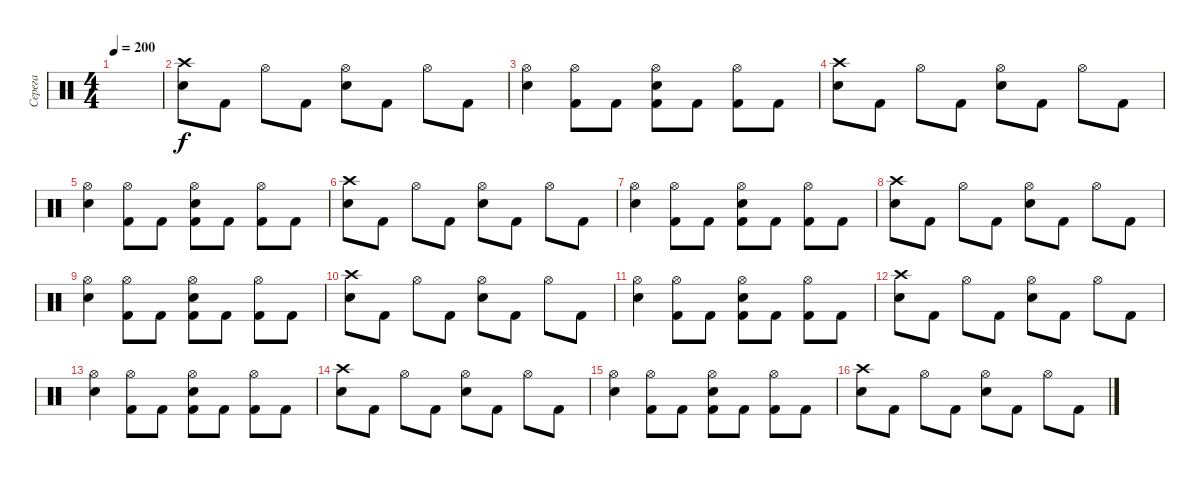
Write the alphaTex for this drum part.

\track ("Серега" "Серега") {instrument percussion}
\staff {score}
\articulation defaults
\ts (4 4)
\tempo 200
\clef neutral
\ks c
|
("Crash high (hit)" "Electric Snare (hit)").8 "Kick (hit) 2".8 "Hi-Hat (open)".8 "Kick (hit) 2".8 ("Hi-Hat (open)" "Electric Snare (hit)").8 "Kick (hit) 2".8 "Hi-Hat (open)".8 "Kick (hit) 2".8 |
("Hi-Hat (open)" "Electric Snare (hit)").4 ("Hi-Hat (open)" "Kick (hit) 2").8 "Kick (hit) 2".8 ("Hi-Hat (open)" "Electric Snare (hit)" "Kick (hit) 2").8 "Kick (hit) 2".8 ("Hi-Hat (open)" "Kick (hit) 2").8 "Kick (hit) 2".8 |
("Crash high (hit)" "Electric Snare (hit)").8 "Kick (hit) 2".8 "Hi-Hat (open)".8 "Kick (hit) 2".8 ("Hi-Hat (open)" "Electric Snare (hit)").8 "Kick (hit) 2".8 "Hi-Hat (open)".8 "Kick (hit) 2".8 |
("Hi-Hat (open)" "Electric Snare (hit)").4 ("Hi-Hat (open)" "Kick (hit) 2").8 "Kick (hit) 2".8 ("Hi-Hat (open)" "Electric Snare (hit)" "Kick (hit) 2").8 "Kick (hit) 2".8 ("Hi-Hat (open)" "Kick (hit) 2").8 "Kick (hit) 2".8 |
("Crash high (hit)" "Electric Snare (hit)").8 "Kick (hit) 2".8 "Hi-Hat (open)".8 "Kick (hit) 2".8 ("Hi-Hat (open)" "Electric Snare (hit)").8 "Kick (hit) 2".8 "Hi-Hat (open)".8 "Kick (hit) 2".8 |
("Hi-Hat (open)" "Electric Snare (hit)").4 ("Hi-Hat (open)" "Kick (hit) 2").8 "Kick (hit) 2".8 ("Hi-Hat (open)" "Electric Snare (hit)" "Kick (hit) 2").8 "Kick (hit) 2".8 ("Hi-Hat (open)" "Kick (hit) 2").8 "Kick (hit) 2".8 |
("Crash high (hit)" "Electric Snare (hit)").8 "Kick (hit) 2".8 "Hi-Hat (open)".8 "Kick (hit) 2".8 ("Hi-Hat (open)" "Electric Snare (hit)").8 "Kick (hit) 2".8 "Hi-Hat (open)".8 "Kick (hit) 2".8 |
("Hi-Hat (open)" "Electric Snare (hit)").4 ("Hi-Hat (open)" "Kick (hit) 2").8 "Kick (hit) 2".8 ("Hi-Hat (open)" "Electric Snare (hit)" "Kick (hit) 2").8 "Kick (hit) 2".8 ("Hi-Hat (open)" "Kick (hit) 2").8 "Kick (hit) 2".8 |
("Crash high (hit)" "Electric Snare (hit)").8 "Kick (hit) 2".8 "Hi-Hat (open)".8 "Kick (hit) 2".8 ("Hi-Hat (open)" "Electric Snare (hit)").8 "Kick (hit) 2".8 "Hi-Hat (open)".8 "Kick (hit) 2".8 |
("Hi-Hat (open)" "Electric Snare (hit)").4 ("Hi-Hat (open)" "Kick (hit) 2").8 "Kick (hit) 2".8 ("Hi-Hat (open)" "Electric Snare (hit)" "Kick (hit) 2").8 "Kick (hit) 2".8 ("Hi-Hat (open)" "Kick (hit) 2").8 "Kick (hit) 2".8 |
("Crash high (hit)" "Electric Snare (hit)").8 "Kick (hit) 2".8 "Hi-Hat (open)".8 "Kick (hit) 2".8 ("Hi-Hat (open)" "Electric Snare (hit)").8 "Kick (hit) 2".8 "Hi-Hat (open)".8 "Kick (hit) 2".8 |
("Hi-Hat (open)" "Electric Snare (hit)").4 ("Hi-Hat (open)" "Kick (hit) 2").8 "Kick (hit) 2".8 ("Hi-Hat (open)" "Electric Snare (hit)" "Kick (hit) 2").8 "Kick (hit) 2".8 ("Hi-Hat (open)" "Kick (hit) 2").8 "Kick (hit) 2".8 |
("Crash high (hit)" "Electric Snare (hit)").8 "Kick (hit) 2".8 "Hi-Hat (open)".8 "Kick (hit) 2".8 ("Hi-Hat (open)" "Electric Snare (hit)").8 "Kick (hit) 2".8 "Hi-Hat (open)".8 "Kick (hit) 2".8 |
("Hi-Hat (open)" "Electric Snare (hit)").4 ("Hi-Hat (open)" "Kick (hit) 2").8 "Kick (hit) 2".8 ("Hi-Hat (open)" "Electric Snare (hit)" "Kick (hit) 2").8 "Kick (hit) 2".8 ("Hi-Hat (open)" "Kick (hit) 2").8 "Kick (hit) 2".8 |
("Crash high (hit)" "Electric Snare (hit)").8 "Kick (hit) 2".8 "Hi-Hat (open)".8 "Kick (hit) 2".8 ("Hi-Hat (open)" "Electric Snare (hit)").8 "Kick (hit) 2".8 "Hi-Hat (open)".8 "Kick (hit) 2".8
